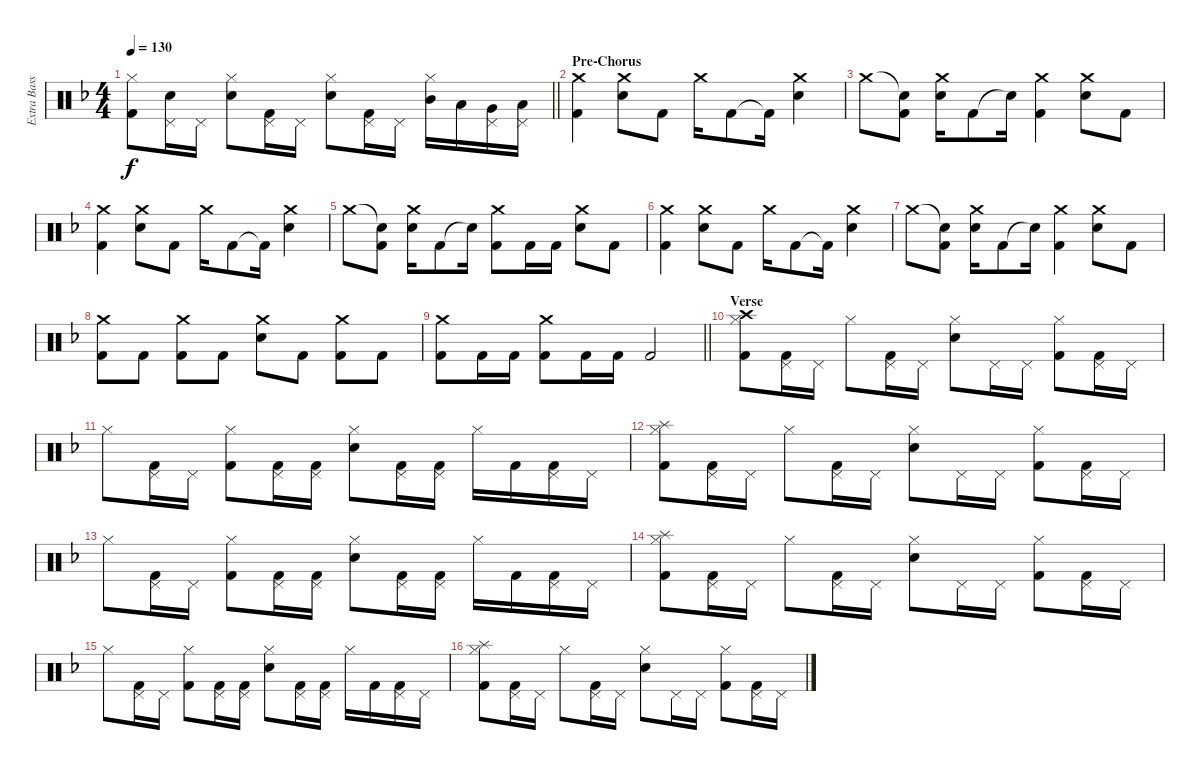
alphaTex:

\track ("Extra BassDrum" "Extra Bass") {instrument percussion}
\staff {score}
\articulation defaults
\ts (4 4)
\tempo 130
\clef neutral
\barLineRight lightlight
\ks f
("Hi-Hat (closed)" "Kick (hit) 2").8{dy f} ("Pedal Hi-Hat (hit)" "Snare (hit) 2").16 "Pedal Hi-Hat (hit)".16 ("Hi-Hat (closed)" "Snare (hit) 2").8 ("Pedal Hi-Hat (hit)" "Kick (hit) 2").16 "Pedal Hi-Hat (hit)".16 ("Hi-Hat (closed)" "Snare (hit) 2").8 ("Pedal Hi-Hat (hit)" "Kick (hit) 2").16 "Pedal Hi-Hat (hit)".16 ("Hi-Hat (closed)" "Mid Tom (hit)").16 "Low Tom (hit)".16 ("Pedal Hi-Hat (hit)" "Very Low Tom (hit)").16 ("Pedal Hi-Hat (hit)" "Low Floor Tom (hit)").16 |
\section ("" "Pre-Chorus")
("Crash medium (hit)" "Kick (hit) 2").4 ("Crash medium (hit)" "Snare (hit) 2").8 "Kick (hit) 2".8 "Crash medium (hit)".16 "Kick (hit) 2".8 "Kick (hit) 2"{t}.16 ("Crash medium (hit)" "Snare (hit) 2").4 |
"Crash medium (hit)".8 ("Snare (hit)"{t} "Kick (hit) 2").8 ("Crash medium (hit)" "Snare (hit) 2").16 "Kick (hit) 2".8 "Snare (hit)"{t}.16 ("Crash medium (hit)" "Kick (hit) 2").4 ("Crash medium (hit)" "Snare (hit) 2").8 "Kick (hit) 2".8 |
("Crash medium (hit)" "Kick (hit) 2").4 ("Crash medium (hit)" "Snare (hit) 2").8 "Kick (hit) 2".8 "Crash medium (hit)".16 "Kick (hit) 2".8 "Kick (hit) 2"{t}.16 ("Crash medium (hit)" "Snare (hit) 2").4 |
"Crash medium (hit)".8 ("Snare (hit)"{t} "Kick (hit) 2").8 ("Crash medium (hit)" "Snare (hit) 2").16 "Kick (hit) 2".8 "Snare (hit)"{t}.16 ("Crash medium (hit)" "Kick (hit) 2").8 "Kick (hit) 2".16 "Kick (hit) 2".16 ("Crash medium (hit)" "Snare (hit) 2").8 "Kick (hit) 2".8 |
("Crash medium (hit)" "Kick (hit) 2").4 ("Crash medium (hit)" "Snare (hit) 2").8 "Kick (hit) 2".8 "Crash medium (hit)".16 "Kick (hit) 2".8 "Kick (hit) 2"{t}.16 ("Crash medium (hit)" "Snare (hit) 2").4 |
"Crash medium (hit)".8 ("Snare (hit)"{t} "Kick (hit) 2").8 ("Crash medium (hit)" "Snare (hit) 2").16 "Kick (hit) 2".8 "Snare (hit)"{t}.16 ("Crash medium (hit)" "Kick (hit) 2").4 ("Crash medium (hit)" "Snare (hit) 2").8 "Kick (hit) 2".8 |
("Crash medium (hit)" "Kick (hit) 2").8 "Kick (hit) 2".8 ("Crash medium (hit)" "Kick (hit) 2").8 "Kick (hit) 2".8 ("Crash medium (hit)" "Snare (hit) 2").8 "Kick (hit) 2".8 ("Crash medium (hit)" "Kick (hit) 2").8 "Kick (hit) 2".8 |
\barLineRight lightlight
("Crash medium (hit)" "Kick (hit) 2").8 "Kick (hit) 2".16 "Kick (hit) 2".16 ("Crash medium (hit)" "Kick (hit) 2").8 "Kick (hit) 2".16 "Kick (hit) 2".16 "Kick (hit) 2".2 |
\section ("" "Verse")
("Crash high (hit)" "Hi-Hat (closed)" "Kick (hit) 2").8 ("Pedal Hi-Hat (hit)" "Kick (hit) 2").16 "Pedal Hi-Hat (hit)".16 "Hi-Hat (closed)".8 ("Pedal Hi-Hat (hit)" "Kick (hit) 2").16 "Pedal Hi-Hat (hit)".16 ("Hi-Hat (closed)" "Snare (hit) 2").8 "Pedal Hi-Hat (hit)".16 "Pedal Hi-Hat (hit)".16 ("Hi-Hat (closed)" "Kick (hit) 2").8 ("Pedal Hi-Hat (hit)" "Kick (hit) 2").16 "Pedal Hi-Hat (hit)".16 |
"Hi-Hat (closed)".8 ("Pedal Hi-Hat (hit)" "Kick (hit) 2").16 "Pedal Hi-Hat (hit)".16 ("Hi-Hat (closed)" "Kick (hit) 2").8 ("Pedal Hi-Hat (hit)" "Kick (hit) 2").16 ("Pedal Hi-Hat (hit)" "Kick (hit) 2").16 ("Hi-Hat (closed)" "Snare (hit) 2").8 ("Pedal Hi-Hat (hit)" "Kick (hit) 2").16 ("Pedal Hi-Hat (hit)" "Kick (hit) 2").16 "Hi-Hat (closed)".16 "Kick (hit) 2".16 ("Pedal Hi-Hat (hit)" "Kick (hit) 2").16 "Pedal Hi-Hat (hit)".16 |
("Splash (hit)" "Hi-Hat (closed)" "Kick (hit) 2").8 ("Pedal Hi-Hat (hit)" "Kick (hit) 2").16 "Pedal Hi-Hat (hit)".16 "Hi-Hat (closed)".8 ("Pedal Hi-Hat (hit)" "Kick (hit) 2").16 "Pedal Hi-Hat (hit)".16 ("Hi-Hat (closed)" "Snare (hit) 2").8 "Pedal Hi-Hat (hit)".16 "Pedal Hi-Hat (hit)".16 ("Hi-Hat (closed)" "Kick (hit) 2").8 ("Pedal Hi-Hat (hit)" "Kick (hit) 2").16 "Pedal Hi-Hat (hit)".16 |
"Hi-Hat (closed)".8 ("Pedal Hi-Hat (hit)" "Kick (hit) 2").16 "Pedal Hi-Hat (hit)".16 ("Hi-Hat (closed)" "Kick (hit) 2").8 ("Pedal Hi-Hat (hit)" "Kick (hit) 2").16 ("Pedal Hi-Hat (hit)" "Kick (hit) 2").16 ("Hi-Hat (closed)" "Snare (hit) 2").8 ("Pedal Hi-Hat (hit)" "Kick (hit) 2").16 ("Pedal Hi-Hat (hit)" "Kick (hit) 2").16 "Hi-Hat (closed)".16 "Kick (hit) 2".16 ("Pedal Hi-Hat (hit)" "Kick (hit) 2").16 "Pedal Hi-Hat (hit)".16 |
("Splash (hit)" "Hi-Hat (closed)" "Kick (hit) 2").8 ("Pedal Hi-Hat (hit)" "Kick (hit) 2").16 "Pedal Hi-Hat (hit)".16 "Hi-Hat (closed)".8 ("Pedal Hi-Hat (hit)" "Kick (hit) 2").16 "Pedal Hi-Hat (hit)".16 ("Hi-Hat (closed)" "Snare (hit) 2").8 "Pedal Hi-Hat (hit)".16 "Pedal Hi-Hat (hit)".16 ("Hi-Hat (closed)" "Kick (hit) 2").8 ("Pedal Hi-Hat (hit)" "Kick (hit) 2").16 "Pedal Hi-Hat (hit)".16 |
"Hi-Hat (closed)".8 ("Pedal Hi-Hat (hit)" "Kick (hit) 2").16 "Pedal Hi-Hat (hit)".16 ("Hi-Hat (closed)" "Kick (hit) 2").8 ("Pedal Hi-Hat (hit)" "Kick (hit) 2").16 ("Pedal Hi-Hat (hit)" "Kick (hit) 2").16 ("Hi-Hat (closed)" "Snare (hit) 2").8 ("Pedal Hi-Hat (hit)" "Kick (hit) 2").16 ("Pedal Hi-Hat (hit)" "Kick (hit) 2").16 "Hi-Hat (closed)".16 "Kick (hit) 2".16 ("Pedal Hi-Hat (hit)" "Kick (hit) 2").16 "Pedal Hi-Hat (hit)".16 |
("Splash (hit)" "Hi-Hat (closed)" "Kick (hit) 2").8 ("Pedal Hi-Hat (hit)" "Kick (hit) 2").16 "Pedal Hi-Hat (hit)".16 "Hi-Hat (closed)".8 ("Pedal Hi-Hat (hit)" "Kick (hit) 2").16 "Pedal Hi-Hat (hit)".16 ("Hi-Hat (closed)" "Snare (hit) 2").8 "Pedal Hi-Hat (hit)".16 "Pedal Hi-Hat (hit)".16 ("Hi-Hat (closed)" "Kick (hit) 2").8 ("Pedal Hi-Hat (hit)" "Kick (hit) 2").16 "Pedal Hi-Hat (hit)".16
